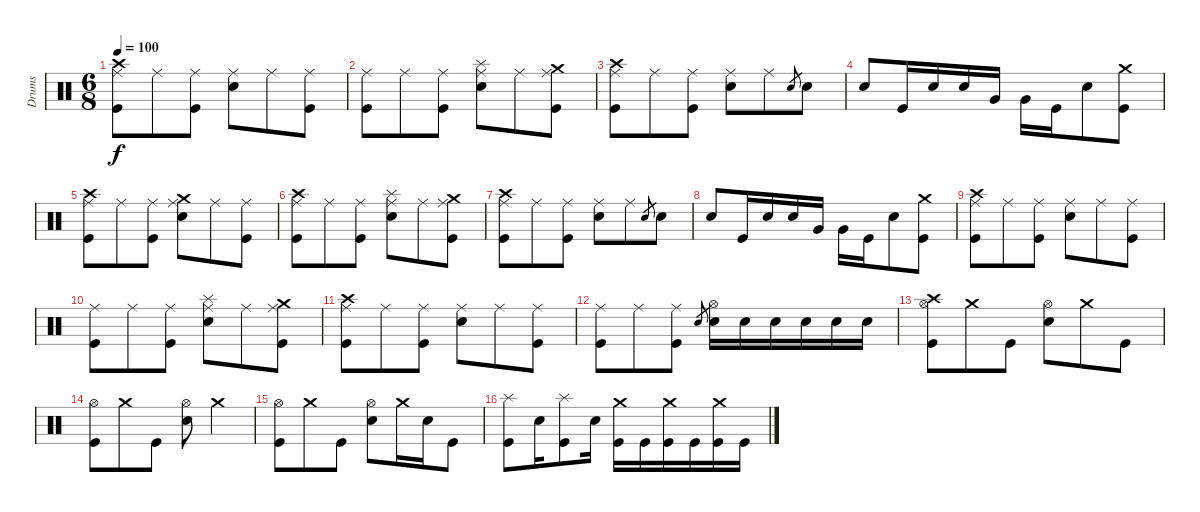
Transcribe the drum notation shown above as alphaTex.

\track ("Drums" "Drums") {instrument percussion}
\staff {score}
\articulation defaults
\ts (6 8)
\tempo 100
\clef neutral
\ks c
("Crash high (hit)" "Ride (middle)" "Kick (hit)").8{dy f} "Ride (middle)".8 ("Ride (middle)" "Kick (hit)").8 ("Ride (middle)" "Electric Snare (hit)").8 "Ride (middle)".8 ("Ride (middle)" "Kick (hit)").8 |
("Ride (middle)" "Kick (hit)").8 "Ride (middle)".8 ("Ride (middle)" "Kick (hit)").8 ("Splash (hit)" "Ride (middle)" "Electric Snare (hit)").8 "Ride (middle)".8 ("Crash medium (hit)" "Ride (middle)" "Kick (hit)").8 |
("Crash high (hit)" "Ride (middle)" "Kick (hit)").8 "Ride (middle)".8 ("Ride (middle)" "Kick (hit)").8 ("Ride (middle)" "Electric Snare (hit)").8 "Ride (middle)".8 "Electric Snare (hit)".8{gr} "Electric Snare (hit)".8 |
"Electric Snare (hit)".8 "Kick (hit)".16 "Electric Snare (hit)".16 "Electric Snare (hit)".16 "Very Low Tom (hit)".16 "Very Low Tom (hit)".16 "Kick (hit)".16 "Electric Snare (hit)".8 ("Crash medium (hit)" "Kick (hit)").8 |
("Crash high (hit)" "Ride (middle)" "Kick (hit)").8 "Ride (middle)".8 ("Ride (middle)" "Kick (hit)").8 ("Crash medium (hit)" "Ride (middle)" "Electric Snare (hit)").8 "Ride (middle)".8 ("Ride (middle)" "Kick (hit)").8 |
("Crash high (hit)" "Ride (middle)" "Kick (hit)").8 "Ride (middle)".8 ("Ride (middle)" "Kick (hit)").8 ("Splash (hit)" "Ride (middle)" "Electric Snare (hit)").8 "Ride (middle)".8 ("Crash medium (hit)" "Ride (middle)" "Kick (hit)").8 |
("Crash high (hit)" "Ride (middle)" "Kick (hit)").8 "Ride (middle)".8 ("Ride (middle)" "Kick (hit)").8 ("Ride (middle)" "Electric Snare (hit)").8 "Ride (middle)".8 "Electric Snare (hit)".8{gr} "Electric Snare (hit)".8 |
"Electric Snare (hit)".8 "Kick (hit)".16 "Electric Snare (hit)".16 "Electric Snare (hit)".16 "Very Low Tom (hit)".16 "Very Low Tom (hit)".16 "Kick (hit)".16 "Electric Snare (hit)".8 ("Crash medium (hit)" "Kick (hit)").8 |
("Crash high (hit)" "Ride (middle)" "Kick (hit)").8 "Ride (middle)".8 ("Ride (middle)" "Kick (hit)").8 ("Ride (middle)" "Electric Snare (hit)").8 "Ride (middle)".8 ("Ride (middle)" "Kick (hit)").8 |
("Ride (middle)" "Kick (hit)").8 "Ride (middle)".8 ("Ride (middle)" "Kick (hit)").8 ("Splash (hit)" "Ride (middle)" "Electric Snare (hit)").8 "Ride (middle)".8 ("Crash medium (hit)" "Ride (middle)" "Kick (hit)").8 |
("Crash high (hit)" "Ride (middle)" "Kick (hit)").8 "Ride (middle)".8 ("Ride (middle)" "Kick (hit)").8 ("Ride (middle)" "Electric Snare (hit)").8 "Ride (middle)".8 ("Ride (middle)" "Kick (hit)").8 |
("Ride (middle)" "Kick (hit)").8 "Ride (middle)".8 ("Ride (middle)" "Kick (hit)").8 "Electric Snare (hit)".8{gr} ("Hi-Hat (open)" "Electric Snare (hit)").16 "Electric Snare (hit)".16 "Electric Snare (hit)".16 "Electric Snare (hit)".16 "Electric Snare (hit)".16 "Electric Snare (hit)".16 |
("Crash high (hit)" "Hi-Hat (open)" "Kick (hit)").8 "Crash medium (hit)".8 "Kick (hit)".8 ("Hi-Hat (open)" "Electric Snare (hit)").8 "Crash medium (hit)".8 "Kick (hit)".8 |
("Hi-Hat (open)" "Kick (hit)").8 "Crash medium (hit)".8 "Kick (hit)".8 ("Hi-Hat (open)" "Electric Snare (hit)").8 "Crash medium (hit)".4 |
("Hi-Hat (open)" "Kick (hit)").8 "Crash medium (hit)".8 "Kick (hit)".8 ("Hi-Hat (open)" "Electric Snare (hit)").8 "Crash medium (hit)".16 "Electric Snare (hit)".16 "Kick (hit)".8 |
("Splash (hit)" "Kick (hit)").8 "Electric Snare (hit)".16 ("Splash (hit)" "Kick (hit)").8 "Electric Snare (hit)".16 ("Crash medium (hit)" "Kick (hit)").16 "Kick (hit)".16 ("Crash medium (hit)" "Kick (hit)").16 "Kick (hit)".16 ("Crash medium (hit)" "Kick (hit)").16 "Kick (hit)".16
